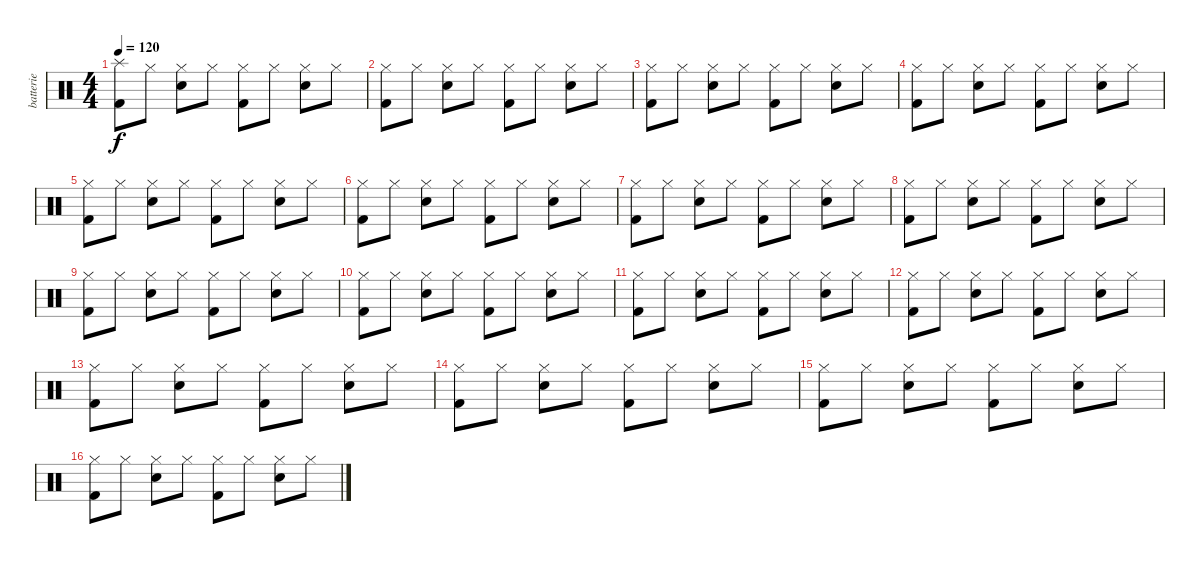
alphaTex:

\track ("batterie" "batterie") {instrument percussion}
\staff {score}
\articulation defaults
\ts (4 4)
\tempo 120
\clef neutral
\ks c
("Kick (hit) 2" "Splash (hit)").8{dy f} "Hi-Hat (closed)".8 ("Snare (hit) 2" "Hi-Hat (closed)").8 "Hi-Hat (closed)".8 ("Kick (hit) 2" "Hi-Hat (closed)").8 "Hi-Hat (closed)".8 ("Snare (hit) 2" "Hi-Hat (closed)").8 "Hi-Hat (closed)".8 |
("Kick (hit) 2" "Hi-Hat (closed)").8 "Hi-Hat (closed)".8 ("Snare (hit) 2" "Hi-Hat (closed)").8 "Hi-Hat (closed)".8 ("Kick (hit) 2" "Hi-Hat (closed)").8 "Hi-Hat (closed)".8 ("Snare (hit) 2" "Hi-Hat (closed)").8 "Hi-Hat (closed)".8 |
("Kick (hit) 2" "Hi-Hat (closed)").8 "Hi-Hat (closed)".8 ("Snare (hit) 2" "Hi-Hat (closed)").8 "Hi-Hat (closed)".8 ("Kick (hit) 2" "Hi-Hat (closed)").8 "Hi-Hat (closed)".8 ("Snare (hit) 2" "Hi-Hat (closed)").8 "Hi-Hat (closed)".8 |
("Kick (hit) 2" "Hi-Hat (closed)").8 "Hi-Hat (closed)".8 ("Snare (hit) 2" "Hi-Hat (closed)").8 "Hi-Hat (closed)".8 ("Kick (hit) 2" "Hi-Hat (closed)").8 "Hi-Hat (closed)".8 ("Snare (hit) 2" "Hi-Hat (closed)").8 "Hi-Hat (closed)".8 |
("Kick (hit) 2" "Hi-Hat (closed)").8 "Hi-Hat (closed)".8 ("Snare (hit) 2" "Hi-Hat (closed)").8 "Hi-Hat (closed)".8 ("Kick (hit) 2" "Hi-Hat (closed)").8 "Hi-Hat (closed)".8 ("Snare (hit) 2" "Hi-Hat (closed)").8 "Hi-Hat (closed)".8 |
("Kick (hit) 2" "Hi-Hat (closed)").8 "Hi-Hat (closed)".8 ("Snare (hit) 2" "Hi-Hat (closed)").8 "Hi-Hat (closed)".8 ("Kick (hit) 2" "Hi-Hat (closed)").8 "Hi-Hat (closed)".8 ("Snare (hit) 2" "Hi-Hat (closed)").8 "Hi-Hat (closed)".8 |
("Kick (hit) 2" "Hi-Hat (closed)").8 "Hi-Hat (closed)".8 ("Snare (hit) 2" "Hi-Hat (closed)").8 "Hi-Hat (closed)".8 ("Kick (hit) 2" "Hi-Hat (closed)").8 "Hi-Hat (closed)".8 ("Snare (hit) 2" "Hi-Hat (closed)").8 "Hi-Hat (closed)".8 |
("Kick (hit) 2" "Hi-Hat (closed)").8 "Hi-Hat (closed)".8 ("Snare (hit) 2" "Hi-Hat (closed)").8 "Hi-Hat (closed)".8 ("Kick (hit) 2" "Hi-Hat (closed)").8 "Hi-Hat (closed)".8 ("Snare (hit) 2" "Hi-Hat (closed)").8 "Hi-Hat (closed)".8 |
("Kick (hit) 2" "Hi-Hat (closed)").8 "Hi-Hat (closed)".8 ("Snare (hit) 2" "Hi-Hat (closed)").8 "Hi-Hat (closed)".8 ("Kick (hit) 2" "Hi-Hat (closed)").8 "Hi-Hat (closed)".8 ("Snare (hit) 2" "Hi-Hat (closed)").8 "Hi-Hat (closed)".8 |
("Kick (hit) 2" "Hi-Hat (closed)").8 "Hi-Hat (closed)".8 ("Snare (hit) 2" "Hi-Hat (closed)").8 "Hi-Hat (closed)".8 ("Kick (hit) 2" "Hi-Hat (closed)").8 "Hi-Hat (closed)".8 ("Snare (hit) 2" "Hi-Hat (closed)").8 "Hi-Hat (closed)".8 |
("Kick (hit) 2" "Hi-Hat (closed)").8 "Hi-Hat (closed)".8 ("Snare (hit) 2" "Hi-Hat (closed)").8 "Hi-Hat (closed)".8 ("Kick (hit) 2" "Hi-Hat (closed)").8 "Hi-Hat (closed)".8 ("Snare (hit) 2" "Hi-Hat (closed)").8 "Hi-Hat (closed)".8 |
("Kick (hit) 2" "Hi-Hat (closed)").8 "Hi-Hat (closed)".8 ("Snare (hit) 2" "Hi-Hat (closed)").8 "Hi-Hat (closed)".8 ("Kick (hit) 2" "Hi-Hat (closed)").8 "Hi-Hat (closed)".8 ("Snare (hit) 2" "Hi-Hat (closed)").8 "Hi-Hat (closed)".8 |
("Kick (hit) 2" "Hi-Hat (closed)").8 "Hi-Hat (closed)".8 ("Snare (hit) 2" "Hi-Hat (closed)").8 "Hi-Hat (closed)".8 ("Kick (hit) 2" "Hi-Hat (closed)").8 "Hi-Hat (closed)".8 ("Snare (hit) 2" "Hi-Hat (closed)").8 "Hi-Hat (closed)".8 |
("Kick (hit) 2" "Hi-Hat (closed)").8 "Hi-Hat (closed)".8 ("Snare (hit) 2" "Hi-Hat (closed)").8 "Hi-Hat (closed)".8 ("Kick (hit) 2" "Hi-Hat (closed)").8 "Hi-Hat (closed)".8 ("Snare (hit) 2" "Hi-Hat (closed)").8 "Hi-Hat (closed)".8 |
("Kick (hit) 2" "Hi-Hat (closed)").8 "Hi-Hat (closed)".8 ("Snare (hit) 2" "Hi-Hat (closed)").8 "Hi-Hat (closed)".8 ("Kick (hit) 2" "Hi-Hat (closed)").8 "Hi-Hat (closed)".8 ("Snare (hit) 2" "Hi-Hat (closed)").8 "Hi-Hat (closed)".8 |
("Kick (hit) 2" "Hi-Hat (closed)").8 "Hi-Hat (closed)".8 ("Snare (hit) 2" "Hi-Hat (closed)").8 "Hi-Hat (closed)".8 ("Kick (hit) 2" "Hi-Hat (closed)").8 "Hi-Hat (closed)".8 ("Snare (hit) 2" "Hi-Hat (closed)").8 "Hi-Hat (closed)".8
